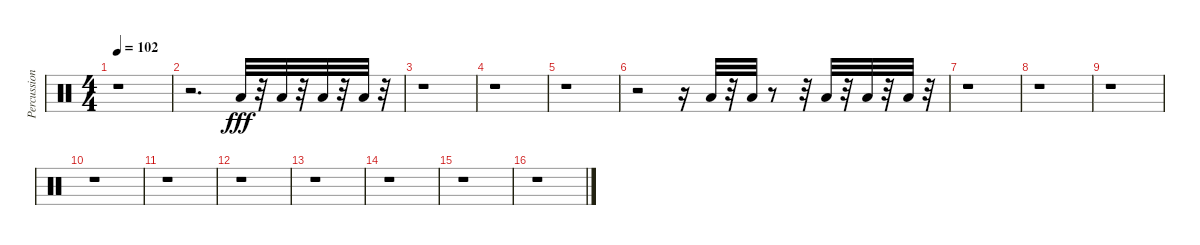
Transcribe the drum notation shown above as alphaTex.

\track ("Percussion" "Percussion") {instrument percussion}
\staff {score}
\articulation defaults
\ts (4 4)
\tempo 102
\clef neutral
\ks c
r.1{dy fff} |
r.2{d} "Low Tom (hit)".32 r.32 "Low Tom (hit)".32 r.32 "Low Floor Tom (hit)".32 r.32 "Low Floor Tom (hit)".32 r.32 |
r.1 |
r.1 |
r.1 |
r.2 r.16 "Low Tom (hit)".32 r.32 "Low Floor Tom (hit)".32 r.8 r.32 "Low Tom (hit)".32 r.32 "Low Floor Tom (hit)".32 r.32 "Low Floor Tom (hit)".32 r.32 |
r.1 |
r.1 |
r.1 |
r.1 |
r.1 |
r.1 |
r.1 |
r.1 |
r.1 |
r.1
